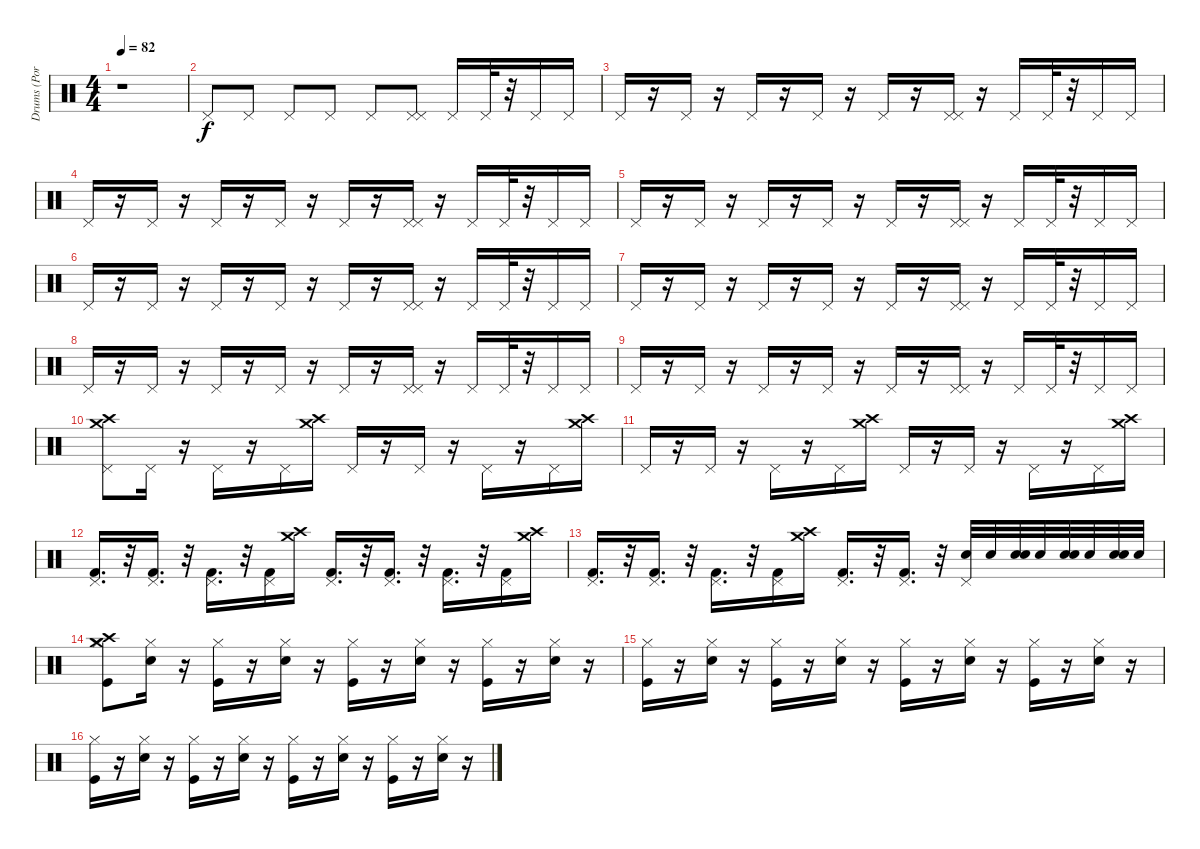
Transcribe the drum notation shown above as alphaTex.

\track ("Drums (Poruchik)" "Drums (Por") {instrument percussion}
\staff {score}
\articulation defaults
\ts (4 4)
\tempo 82
\clef neutral
\ks c
r.1{dy f} |
"Pedal Hi-Hat (hit)".8 "Pedal Hi-Hat (hit)".8 "Pedal Hi-Hat (hit)".8 "Pedal Hi-Hat (hit)".8 "Pedal Hi-Hat (hit)".8 ("Pedal Hi-Hat (hit)" "Pedal Hi-Hat (hit)").8 "Pedal Hi-Hat (hit)".16 "Pedal Hi-Hat (hit)".32 r.32 "Pedal Hi-Hat (hit)".16 "Pedal Hi-Hat (hit)".16 |
"Pedal Hi-Hat (hit)".16 r.16 "Pedal Hi-Hat (hit)".16 r.16 "Pedal Hi-Hat (hit)".16 r.16 "Pedal Hi-Hat (hit)".16 r.16 "Pedal Hi-Hat (hit)".16 r.16 ("Pedal Hi-Hat (hit)" "Pedal Hi-Hat (hit)").16 r.16 "Pedal Hi-Hat (hit)".16 "Pedal Hi-Hat (hit)".32 r.32 "Pedal Hi-Hat (hit)".16 "Pedal Hi-Hat (hit)".16 |
"Pedal Hi-Hat (hit)".16 r.16 "Pedal Hi-Hat (hit)".16 r.16 "Pedal Hi-Hat (hit)".16 r.16 "Pedal Hi-Hat (hit)".16 r.16 "Pedal Hi-Hat (hit)".16 r.16 ("Pedal Hi-Hat (hit)" "Pedal Hi-Hat (hit)").16 r.16 "Pedal Hi-Hat (hit)".16 "Pedal Hi-Hat (hit)".32 r.32 "Pedal Hi-Hat (hit)".16 "Pedal Hi-Hat (hit)".16 |
"Pedal Hi-Hat (hit)".16 r.16 "Pedal Hi-Hat (hit)".16 r.16 "Pedal Hi-Hat (hit)".16 r.16 "Pedal Hi-Hat (hit)".16 r.16 "Pedal Hi-Hat (hit)".16 r.16 ("Pedal Hi-Hat (hit)" "Pedal Hi-Hat (hit)").16 r.16 "Pedal Hi-Hat (hit)".16 "Pedal Hi-Hat (hit)".32 r.32 "Pedal Hi-Hat (hit)".16 "Pedal Hi-Hat (hit)".16 |
"Pedal Hi-Hat (hit)".16 r.16 "Pedal Hi-Hat (hit)".16 r.16 "Pedal Hi-Hat (hit)".16 r.16 "Pedal Hi-Hat (hit)".16 r.16 "Pedal Hi-Hat (hit)".16 r.16 ("Pedal Hi-Hat (hit)" "Pedal Hi-Hat (hit)").16 r.16 "Pedal Hi-Hat (hit)".16 "Pedal Hi-Hat (hit)".32 r.32 "Pedal Hi-Hat (hit)".16 "Pedal Hi-Hat (hit)".16 |
"Pedal Hi-Hat (hit)".16 r.16 "Pedal Hi-Hat (hit)".16 r.16 "Pedal Hi-Hat (hit)".16 r.16 "Pedal Hi-Hat (hit)".16 r.16 "Pedal Hi-Hat (hit)".16 r.16 ("Pedal Hi-Hat (hit)" "Pedal Hi-Hat (hit)").16 r.16 "Pedal Hi-Hat (hit)".16 "Pedal Hi-Hat (hit)".32 r.32 "Pedal Hi-Hat (hit)".16 "Pedal Hi-Hat (hit)".16 |
"Pedal Hi-Hat (hit)".16 r.16 "Pedal Hi-Hat (hit)".16 r.16 "Pedal Hi-Hat (hit)".16 r.16 "Pedal Hi-Hat (hit)".16 r.16 "Pedal Hi-Hat (hit)".16 r.16 ("Pedal Hi-Hat (hit)" "Pedal Hi-Hat (hit)").16 r.16 "Pedal Hi-Hat (hit)".16 "Pedal Hi-Hat (hit)".32 r.32 "Pedal Hi-Hat (hit)".16 "Pedal Hi-Hat (hit)".16 |
"Pedal Hi-Hat (hit)".16 r.16 "Pedal Hi-Hat (hit)".16 r.16 "Pedal Hi-Hat (hit)".16 r.16 "Pedal Hi-Hat (hit)".16 r.16 "Pedal Hi-Hat (hit)".16 r.16 ("Pedal Hi-Hat (hit)" "Pedal Hi-Hat (hit)").16 r.16 "Pedal Hi-Hat (hit)".16 "Pedal Hi-Hat (hit)".32 r.32 "Pedal Hi-Hat (hit)".16 "Pedal Hi-Hat (hit)".16 |
("Crash high (hit)" "Crash medium (hit)" "Pedal Hi-Hat (hit)").8 "Pedal Hi-Hat (hit)".16 r.16 "Pedal Hi-Hat (hit)".16 r.16 "Pedal Hi-Hat (hit)".16 ("Crash high (hit)" "Crash medium (hit)").16 "Pedal Hi-Hat (hit)".16 r.16 "Pedal Hi-Hat (hit)".16 r.16 "Pedal Hi-Hat (hit)".16 r.16 "Pedal Hi-Hat (hit)".16 ("Crash high (hit)" "Crash medium (hit)").16 |
"Pedal Hi-Hat (hit)".16 r.16 "Pedal Hi-Hat (hit)".16 r.16 "Pedal Hi-Hat (hit)".16 r.16 "Pedal Hi-Hat (hit)".16 ("Crash high (hit)" "Crash medium (hit)").16 "Pedal Hi-Hat (hit)".16 r.16 "Pedal Hi-Hat (hit)".16 r.16 "Pedal Hi-Hat (hit)".16 r.16 "Pedal Hi-Hat (hit)".16 ("Crash high (hit)" "Crash medium (hit)").16 |
("Kick (hit) 2" "Pedal Hi-Hat (hit)").16{d} r.32 ("Kick (hit) 2" "Pedal Hi-Hat (hit)").16{d} r.32 ("Kick (hit) 2" "Pedal Hi-Hat (hit)").16{d} r.32 ("Kick (hit) 2" "Pedal Hi-Hat (hit)").16 ("Crash high (hit)" "Crash medium (hit)").16 ("Kick (hit) 2" "Pedal Hi-Hat (hit)").16{d} r.32 ("Kick (hit) 2" "Pedal Hi-Hat (hit)").16{d} r.32 ("Kick (hit) 2" "Pedal Hi-Hat (hit)").16{d} r.32 ("Kick (hit) 2" "Pedal Hi-Hat (hit)").16 ("Crash high (hit)" "Crash medium (hit)").16 |
("Kick (hit) 2" "Pedal Hi-Hat (hit)").16{d} r.32 ("Kick (hit) 2" "Pedal Hi-Hat (hit)").16{d} r.32 ("Kick (hit) 2" "Pedal Hi-Hat (hit)").16{d} r.32 ("Kick (hit) 2" "Pedal Hi-Hat (hit)").16 ("Crash high (hit)" "Crash medium (hit)").16 ("Kick (hit) 2" "Pedal Hi-Hat (hit)").16{d} r.32 ("Kick (hit) 2" "Pedal Hi-Hat (hit)").16{d} r.32 ("Pedal Hi-Hat (hit)" "Snare (hit) 2").32 "Snare (hit) 2".32 ("Snare (hit) 2" "Snare (hit) 2").32 "Snare (hit) 2".32 ("Snare (hit) 2" "Snare (hit) 2").32 "Snare (hit) 2".32 ("Snare (hit) 2" "Snare (hit) 2").32 "Snare (hit) 2".32 |
("Hi-Hat (closed)" "Kick (hit)" "Crash high (hit)" "Crash medium (hit)").8 ("Hi-Hat (closed)" "Snare (hit) 2").16 r.16 ("Kick (hit)" "Hi-Hat (closed)").16 r.16 ("Hi-Hat (closed)" "Snare (hit) 2").16 r.16 ("Kick (hit)" "Hi-Hat (closed)").16 r.16 ("Hi-Hat (closed)" "Snare (hit) 2").16 r.16 ("Hi-Hat (closed)" "Kick (hit)").16 r.16 ("Hi-Hat (closed)" "Snare (hit) 2").16 r.16 |
("Hi-Hat (closed)" "Kick (hit)").16 r.16 ("Snare (hit) 2" "Hi-Hat (closed)").16 r.16 ("Kick (hit)" "Hi-Hat (closed)").16 r.16 ("Snare (hit) 2" "Hi-Hat (closed)").16 r.16 ("Hi-Hat (closed)" "Kick (hit)").16 r.16 ("Hi-Hat (closed)" "Snare (hit) 2").16 r.16 ("Kick (hit)" "Hi-Hat (closed)").16 r.16 ("Hi-Hat (closed)" "Snare (hit) 2").16 r.16 |
("Kick (hit)" "Hi-Hat (closed)").16 r.16 ("Snare (hit) 2" "Hi-Hat (closed)").16 r.16 ("Hi-Hat (closed)" "Kick (hit)").16 r.16 ("Snare (hit) 2" "Hi-Hat (closed)").16 r.16 ("Hi-Hat (closed)" "Kick (hit)").16 r.16 ("Hi-Hat (closed)" "Snare (hit) 2").16 r.16 ("Hi-Hat (closed)" "Kick (hit)").16 r.16 ("Hi-Hat (closed)" "Snare (hit) 2").16 r.16
